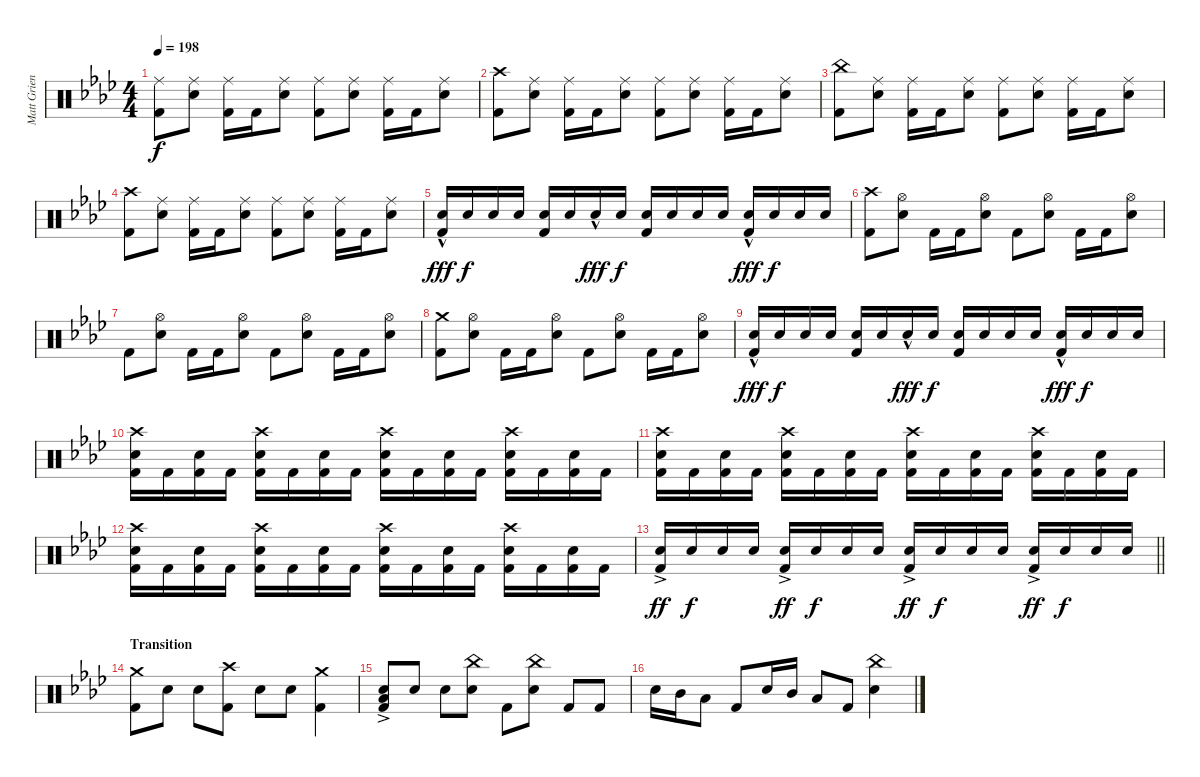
\track ("Matt Griener [Drum Kit]" "Matt Grien") {instrument percussion}
\staff {score}
\articulation defaults
\ts (4 4)
\tempo 198
\clef neutral
\ks fminor
("Ride (middle)" "Kick (hit) 2").8{dy f} ("Ride (middle)" "Electric Snare (hit)").8 ("Ride (middle)" "Kick (hit) 2").16 "Kick (hit) 2".16 ("Ride (middle)" "Electric Snare (hit)").8 ("Ride (middle)" "Kick (hit) 2").8 ("Ride (middle)" "Electric Snare (hit)").8 ("Ride (middle)" "Kick (hit) 2").16 "Kick (hit) 2".16 ("Ride (middle)" "Electric Snare (hit)").8 |
("Crash high (hit)" "Kick (hit) 2").8 ("Ride (middle)" "Electric Snare (hit)").8 ("Ride (middle)" "Kick (hit) 2").16 "Kick (hit) 2".16 ("Ride (middle)" "Electric Snare (hit)").8 ("Ride (middle)" "Kick (hit) 2").8 ("Ride (middle)" "Electric Snare (hit)").8 ("Ride (middle)" "Kick (hit) 2").16 "Kick (hit) 2".16 ("Ride (middle)" "Electric Snare (hit)").8 |
("China (hit)" "Kick (hit) 2").8 ("Ride (middle)" "Electric Snare (hit)").8 ("Ride (middle)" "Kick (hit) 2").16 "Kick (hit) 2".16 ("Ride (middle)" "Electric Snare (hit)").8 ("Ride (middle)" "Kick (hit) 2").8 ("Ride (middle)" "Electric Snare (hit)").8 ("Ride (middle)" "Kick (hit) 2").16 "Kick (hit) 2".16 ("Ride (middle)" "Electric Snare (hit)").8 |
("Crash high (hit)" "Kick (hit) 2").8 ("Ride (middle)" "Electric Snare (hit)").8 ("Ride (middle)" "Kick (hit) 2").16 "Kick (hit) 2".16 ("Ride (middle)" "Electric Snare (hit)").8 ("Ride (middle)" "Kick (hit) 2").8 ("Ride (middle)" "Electric Snare (hit)").8 ("Ride (middle)" "Kick (hit) 2").16 "Kick (hit) 2".16 ("Ride (middle)" "Electric Snare (hit)").8 |
("Electric Snare (hit)"{hac} "Kick (hit) 2").16{dy fff} "Electric Snare (hit)".16{dy f} "Electric Snare (hit)".16 "Electric Snare (hit)".16 ("Electric Snare (hit)" "Kick (hit) 2").16 "Electric Snare (hit)".16 "Electric Snare (hit)"{hac}.16{dy fff} "Electric Snare (hit)".16{dy f} ("Electric Snare (hit)" "Kick (hit) 2").16 "Electric Snare (hit)".16 "Electric Snare (hit)".16 "Electric Snare (hit)".16 ("Electric Snare (hit)"{hac} "Kick (hit) 2").16{dy fff} "Electric Snare (hit)".16{dy f} "Electric Snare (hit)".16 "Electric Snare (hit)".16 |
("Crash high (hit)" "Kick (hit) 2").8 ("Hi-Hat (open)" "Electric Snare (hit)").8 "Kick (hit) 2".16 "Kick (hit) 2".16 ("Hi-Hat (open)" "Electric Snare (hit)").8 "Kick (hit) 2".8 ("Hi-Hat (open)" "Electric Snare (hit)").8 "Kick (hit) 2".16 "Kick (hit) 2".16 ("Hi-Hat (open)" "Electric Snare (hit)").8 |
"Kick (hit) 2".8 ("Hi-Hat (open)" "Electric Snare (hit)").8 "Kick (hit) 2".16 "Kick (hit) 2".16 ("Hi-Hat (open)" "Electric Snare (hit)").8 "Kick (hit) 2".8 ("Hi-Hat (open)" "Electric Snare (hit)").8 "Kick (hit) 2".16 "Kick (hit) 2".16 ("Hi-Hat (open)" "Electric Snare (hit)").8 |
("Crash medium (hit)" "Kick (hit) 2").8 ("Hi-Hat (open)" "Electric Snare (hit)").8 "Kick (hit) 2".16 "Kick (hit) 2".16 ("Hi-Hat (open)" "Electric Snare (hit)").8 "Kick (hit) 2".8 ("Hi-Hat (open)" "Electric Snare (hit)").8 "Kick (hit) 2".16 "Kick (hit) 2".16 ("Hi-Hat (open)" "Electric Snare (hit)").8 |
("Electric Snare (hit)"{hac} "Kick (hit) 2").16{dy fff} "Electric Snare (hit)".16{dy f} "Electric Snare (hit)".16 "Electric Snare (hit)".16 ("Electric Snare (hit)" "Kick (hit) 2").16 "Electric Snare (hit)".16 "Electric Snare (hit)"{hac}.16{dy fff} "Electric Snare (hit)".16{dy f} ("Electric Snare (hit)" "Kick (hit) 2").16 "Electric Snare (hit)".16 "Electric Snare (hit)".16 "Electric Snare (hit)".16 ("Electric Snare (hit)"{hac} "Kick (hit) 2").16{dy fff} "Electric Snare (hit)".16{dy f} "Electric Snare (hit)".16 "Electric Snare (hit)".16 |
("Crash high (hit)" "Electric Snare (hit)" "Kick (hit) 2").16 "Kick (hit) 2".16 ("Electric Snare (hit)" "Kick (hit) 2").16 "Kick (hit) 2".16 ("Crash high (hit)" "Electric Snare (hit)" "Kick (hit) 2").16 "Kick (hit) 2".16 ("Electric Snare (hit)" "Kick (hit) 2").16 "Kick (hit) 2".16 ("Crash high (hit)" "Electric Snare (hit)" "Kick (hit) 2").16 "Kick (hit) 2".16 ("Electric Snare (hit)" "Kick (hit) 2").16 "Kick (hit) 2".16 ("Crash high (hit)" "Electric Snare (hit)" "Kick (hit) 2").16 "Kick (hit) 2".16 ("Electric Snare (hit)" "Kick (hit) 2").16 "Kick (hit) 2".16 |
("Crash high (hit)" "Electric Snare (hit)" "Kick (hit) 2").16 "Kick (hit) 2".16 ("Electric Snare (hit)" "Kick (hit) 2").16 "Kick (hit) 2".16 ("Crash high (hit)" "Electric Snare (hit)" "Kick (hit) 2").16 "Kick (hit) 2".16 ("Electric Snare (hit)" "Kick (hit) 2").16 "Kick (hit) 2".16 ("Crash high (hit)" "Electric Snare (hit)" "Kick (hit) 2").16 "Kick (hit) 2".16 ("Electric Snare (hit)" "Kick (hit) 2").16 "Kick (hit) 2".16 ("Crash high (hit)" "Electric Snare (hit)" "Kick (hit) 2").16 "Kick (hit) 2".16 ("Electric Snare (hit)" "Kick (hit) 2").16 "Kick (hit) 2".16 |
("Crash high (hit)" "Electric Snare (hit)" "Kick (hit) 2").16 "Kick (hit) 2".16 ("Electric Snare (hit)" "Kick (hit) 2").16 "Kick (hit) 2".16 ("Crash high (hit)" "Electric Snare (hit)" "Kick (hit) 2").16 "Kick (hit) 2".16 ("Electric Snare (hit)" "Kick (hit) 2").16 "Kick (hit) 2".16 ("Crash high (hit)" "Electric Snare (hit)" "Kick (hit) 2").16 "Kick (hit) 2".16 ("Electric Snare (hit)" "Kick (hit) 2").16 "Kick (hit) 2".16 ("Crash high (hit)" "Electric Snare (hit)" "Kick (hit) 2").16 "Kick (hit) 2".16 ("Electric Snare (hit)" "Kick (hit) 2").16 "Kick (hit) 2".16 |
\barLineRight lightlight
("Electric Snare (hit)"{ac} "Kick (hit) 2").16{dy ff} "Electric Snare (hit)".16{dy f} "Electric Snare (hit)".16 "Electric Snare (hit)".16 ("Electric Snare (hit)"{ac} "Kick (hit) 2").16{dy ff} "Electric Snare (hit)".16{dy f} "Electric Snare (hit)".16 "Electric Snare (hit)".16 ("Electric Snare (hit)"{ac} "Kick (hit) 2").16{dy ff} "Electric Snare (hit)".16{dy f} "Electric Snare (hit)".16 "Electric Snare (hit)".16 ("Electric Snare (hit)"{ac} "Kick (hit) 2").16{dy ff} "Electric Snare (hit)".16{dy f} "Electric Snare (hit)".16 "Electric Snare (hit)".16 |
\section ("" "Transition")
("Crash medium (hit)" "Kick (hit) 2").8 "Electric Snare (hit)".8 "Electric Snare (hit)".8 ("Crash high (hit)" "Kick (hit) 2").8 "Electric Snare (hit)".8 "Electric Snare (hit)".8 ("Crash medium (hit)" "Kick (hit) 2").4 |
("Electric Snare (hit)"{ac} "Low Floor Tom (hit)"{ac} "Kick (hit) 2").8 "Electric Snare (hit)".8 "Electric Snare (hit)".8 ("China (hit)" "Electric Snare (hit)").8 "Kick (hit) 2".8 ("China (hit)" "Electric Snare (hit)").8 "Kick (hit) 2".8 "Kick (hit) 2".8 |
"Electric Snare (hit)".16 "Mid Tom (hit)".16 "Low Floor Tom (hit)".8 "Kick (hit) 2".8 "Electric Snare (hit)".16 "Mid Tom (hit)".16 "Low Floor Tom (hit)".8 "Kick (hit) 2".8 ("China (hit)" "Electric Snare (hit)").4
